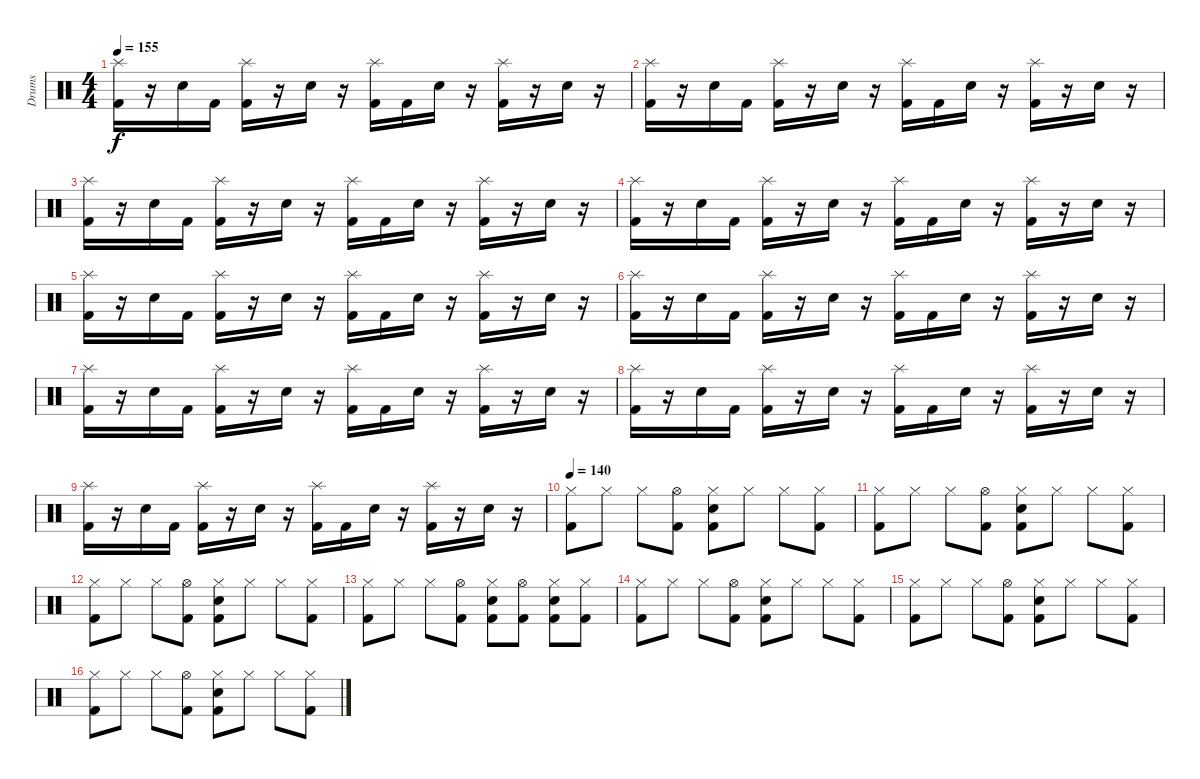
\track ("Drums" "Drums") {instrument percussion}
\staff {score}
\articulation defaults
\ts (4 4)
\tempo 155
\clef neutral
\ks c
("Kick (hit) 2" "Splash (hit)").16{dy f} r.16 "Snare (hit) 2".16 "Kick (hit) 2".16 ("Kick (hit) 2" "Splash (hit)").16 r.16 "Snare (hit) 2".16 r.16 ("Kick (hit) 2" "Splash (hit)").16 "Kick (hit) 2".16 "Snare (hit) 2".16 r.16 ("Kick (hit) 2" "Splash (hit)").16 r.16 "Snare (hit) 2".16 r.16 |
("Kick (hit) 2" "Splash (hit)").16 r.16 "Snare (hit) 2".16 "Kick (hit) 2".16 ("Kick (hit) 2" "Splash (hit)").16 r.16 "Snare (hit) 2".16 r.16 ("Kick (hit) 2" "Splash (hit)").16 "Kick (hit) 2".16 "Snare (hit) 2".16 r.16 ("Kick (hit) 2" "Splash (hit)").16 r.16 "Snare (hit) 2".16 r.16 |
("Kick (hit) 2" "Splash (hit)").16 r.16 "Snare (hit) 2".16 "Kick (hit) 2".16 ("Kick (hit) 2" "Splash (hit)").16 r.16 "Snare (hit) 2".16 r.16 ("Kick (hit) 2" "Splash (hit)").16 "Kick (hit) 2".16 "Snare (hit) 2".16 r.16 ("Kick (hit) 2" "Splash (hit)").16 r.16 "Snare (hit) 2".16 r.16 |
("Kick (hit) 2" "Splash (hit)").16 r.16 "Snare (hit) 2".16 "Kick (hit) 2".16 ("Kick (hit) 2" "Splash (hit)").16 r.16 "Snare (hit) 2".16 r.16 ("Kick (hit) 2" "Splash (hit)").16 "Kick (hit) 2".16 "Snare (hit) 2".16 r.16 ("Kick (hit) 2" "Splash (hit)").16 r.16 "Snare (hit) 2".16 r.16 |
("Kick (hit) 2" "Splash (hit)").16 r.16 "Snare (hit) 2".16 "Kick (hit) 2".16 ("Kick (hit) 2" "Splash (hit)").16 r.16 "Snare (hit) 2".16 r.16 ("Kick (hit) 2" "Splash (hit)").16 "Kick (hit) 2".16 "Snare (hit) 2".16 r.16 ("Kick (hit) 2" "Splash (hit)").16 r.16 "Snare (hit) 2".16 r.16 |
("Kick (hit) 2" "Splash (hit)").16 r.16 "Snare (hit) 2".16 "Kick (hit) 2".16 ("Kick (hit) 2" "Splash (hit)").16 r.16 "Snare (hit) 2".16 r.16 ("Kick (hit) 2" "Splash (hit)").16 "Kick (hit) 2".16 "Snare (hit) 2".16 r.16 ("Kick (hit) 2" "Splash (hit)").16 r.16 "Snare (hit) 2".16 r.16 |
("Kick (hit) 2" "Splash (hit)").16 r.16 "Snare (hit) 2".16 "Kick (hit) 2".16 ("Kick (hit) 2" "Splash (hit)").16 r.16 "Snare (hit) 2".16 r.16 ("Kick (hit) 2" "Splash (hit)").16 "Kick (hit) 2".16 "Snare (hit) 2".16 r.16 ("Kick (hit) 2" "Splash (hit)").16 r.16 "Snare (hit) 2".16 r.16 |
("Kick (hit) 2" "Splash (hit)").16 r.16 "Snare (hit) 2".16 "Kick (hit) 2".16 ("Kick (hit) 2" "Splash (hit)").16 r.16 "Snare (hit) 2".16 r.16 ("Kick (hit) 2" "Splash (hit)").16 "Kick (hit) 2".16 "Snare (hit) 2".16 r.16 ("Kick (hit) 2" "Splash (hit)").16 r.16 "Snare (hit) 2".16 r.16 |
("Kick (hit) 2" "Splash (hit)").16 r.16 "Snare (hit) 2".16 "Kick (hit) 2".16 ("Kick (hit) 2" "Splash (hit)").16 r.16 "Snare (hit) 2".16 r.16 ("Kick (hit) 2" "Splash (hit)").16 "Kick (hit) 2".16 "Snare (hit) 2".16 r.16 ("Kick (hit) 2" "Splash (hit)").16 r.16 "Snare (hit) 2".16 r.16 |
\tempo 140
("Kick (hit) 2" "Hi-Hat (closed)").8 "Hi-Hat (closed)".8 "Hi-Hat (closed)".8 ("Kick (hit) 2" "Hi-Hat (open)").8 ("Kick (hit) 2" "Snare (hit) 2" "Hi-Hat (closed)").8 "Hi-Hat (closed)".8 "Hi-Hat (closed)".8 ("Kick (hit) 2" "Hi-Hat (closed)").8 |
("Kick (hit) 2" "Hi-Hat (closed)").8 "Hi-Hat (closed)".8 "Hi-Hat (closed)".8 ("Kick (hit) 2" "Hi-Hat (open)").8 ("Kick (hit) 2" "Snare (hit) 2" "Hi-Hat (closed)").8 "Hi-Hat (closed)".8 "Hi-Hat (closed)".8 ("Kick (hit) 2" "Hi-Hat (closed)").8 |
("Kick (hit) 2" "Hi-Hat (closed)").8 "Hi-Hat (closed)".8 "Hi-Hat (closed)".8 ("Kick (hit) 2" "Hi-Hat (open)").8 ("Kick (hit) 2" "Snare (hit) 2" "Hi-Hat (closed)").8 "Hi-Hat (closed)".8 "Hi-Hat (closed)".8 ("Kick (hit) 2" "Hi-Hat (closed)").8 |
("Kick (hit) 2" "Hi-Hat (closed)").8 "Hi-Hat (closed)".8 "Hi-Hat (closed)".8 ("Kick (hit) 2" "Hi-Hat (open)").8 ("Kick (hit) 2" "Snare (hit) 2" "Hi-Hat (closed)").8 ("Kick (hit) 2" "Hi-Hat (open)").8 ("Kick (hit) 2" "Snare (hit) 2" "Hi-Hat (closed)").8 ("Kick (hit) 2" "Hi-Hat (closed)").8 |
("Kick (hit) 2" "Hi-Hat (closed)").8 "Hi-Hat (closed)".8 "Hi-Hat (closed)".8 ("Kick (hit) 2" "Hi-Hat (open)").8 ("Kick (hit) 2" "Snare (hit) 2" "Hi-Hat (closed)").8 "Hi-Hat (closed)".8 "Hi-Hat (closed)".8 ("Kick (hit) 2" "Hi-Hat (closed)").8 |
("Kick (hit) 2" "Hi-Hat (closed)").8 "Hi-Hat (closed)".8 "Hi-Hat (closed)".8 ("Kick (hit) 2" "Hi-Hat (open)").8 ("Kick (hit) 2" "Snare (hit) 2" "Hi-Hat (closed)").8 "Hi-Hat (closed)".8 "Hi-Hat (closed)".8 ("Kick (hit) 2" "Hi-Hat (closed)").8 |
("Kick (hit) 2" "Hi-Hat (closed)").8 "Hi-Hat (closed)".8 "Hi-Hat (closed)".8 ("Kick (hit) 2" "Hi-Hat (open)").8 ("Kick (hit) 2" "Snare (hit) 2" "Hi-Hat (closed)").8 "Hi-Hat (closed)".8 "Hi-Hat (closed)".8 ("Kick (hit) 2" "Hi-Hat (closed)").8
